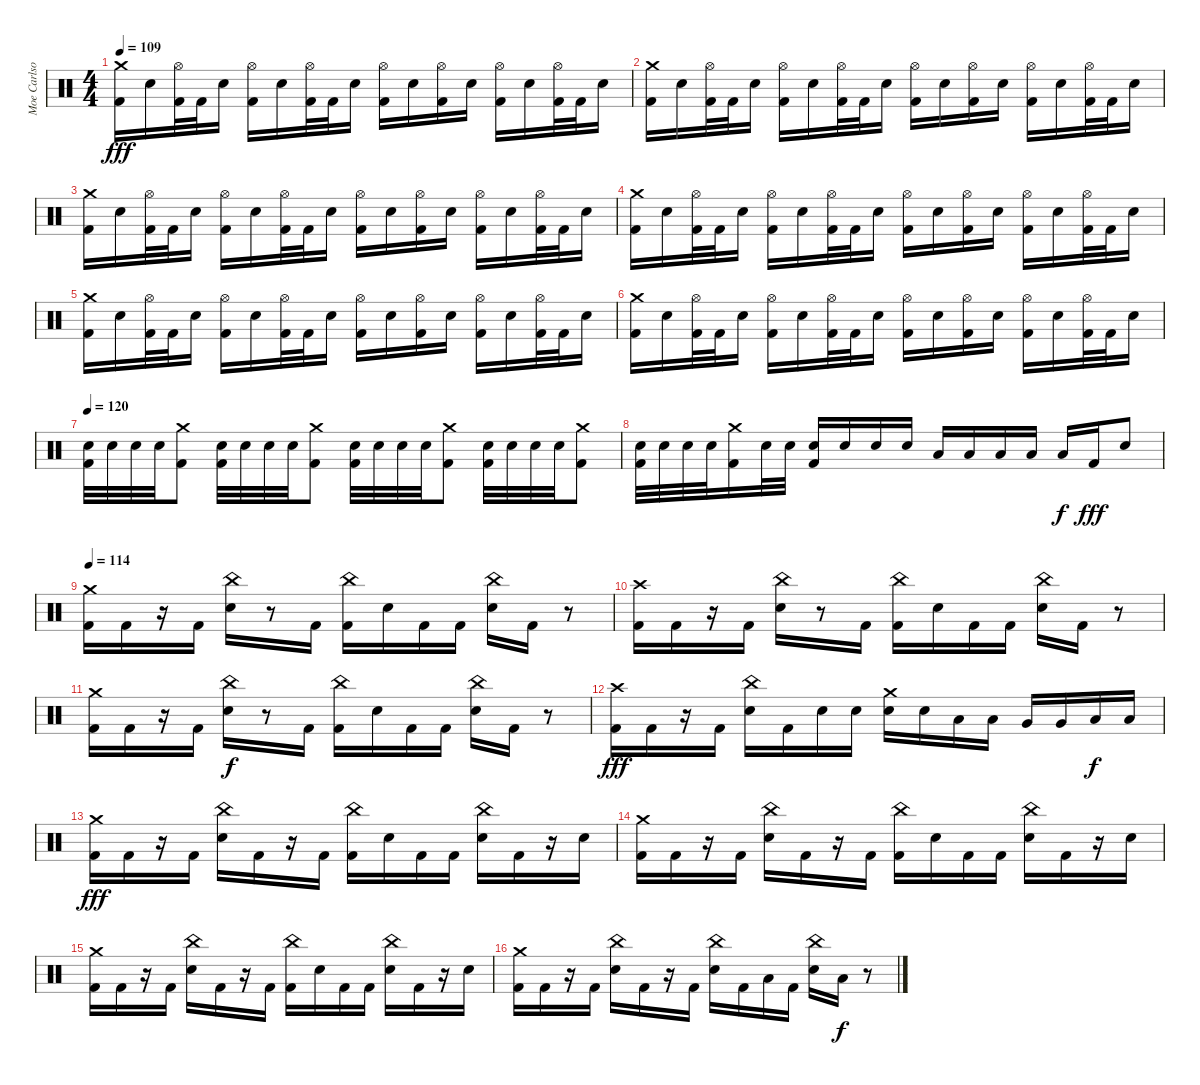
\track ("Moe Carlson" "Moe Carlso") {instrument percussion}
\staff {score}
\articulation defaults
\ts (4 4)
\tempo 109
\clef neutral
\ks c
("Crash medium (hit)" "Kick (hit) 2").16{dy fff} "Electric Snare (hit)".16 ("Hi-Hat (open)" "Kick (hit) 2").32 "Kick (hit) 2".32 "Electric Snare (hit)".16 ("Hi-Hat (open)" "Kick (hit) 2").16 "Electric Snare (hit)".16 ("Hi-Hat (open)" "Kick (hit) 2").32 "Kick (hit) 2".32 "Electric Snare (hit)".16 ("Hi-Hat (open)" "Kick (hit) 2").16 "Electric Snare (hit)".16 ("Hi-Hat (open)" "Kick (hit) 2").16 "Electric Snare (hit)".16 ("Hi-Hat (open)" "Kick (hit) 2").16 "Electric Snare (hit)".16 ("Hi-Hat (open)" "Kick (hit) 2").32 "Kick (hit) 2".32 "Electric Snare (hit)".16 |
("Crash medium (hit)" "Kick (hit) 2").16 "Electric Snare (hit)".16 ("Hi-Hat (open)" "Kick (hit) 2").32 "Kick (hit) 2".32 "Electric Snare (hit)".16 ("Hi-Hat (open)" "Kick (hit) 2").16 "Electric Snare (hit)".16 ("Hi-Hat (open)" "Kick (hit) 2").32 "Kick (hit) 2".32 "Electric Snare (hit)".16 ("Hi-Hat (open)" "Kick (hit) 2").16 "Electric Snare (hit)".16 ("Hi-Hat (open)" "Kick (hit) 2").16 "Electric Snare (hit)".16 ("Hi-Hat (open)" "Kick (hit) 2").16 "Electric Snare (hit)".16 ("Hi-Hat (open)" "Kick (hit) 2").32 "Kick (hit) 2".32 "Electric Snare (hit)".16 |
("Crash medium (hit)" "Kick (hit) 2").16 "Electric Snare (hit)".16 ("Hi-Hat (open)" "Kick (hit) 2").32 "Kick (hit) 2".32 "Electric Snare (hit)".16 ("Hi-Hat (open)" "Kick (hit) 2").16 "Electric Snare (hit)".16 ("Hi-Hat (open)" "Kick (hit) 2").32 "Kick (hit) 2".32 "Electric Snare (hit)".16 ("Hi-Hat (open)" "Kick (hit) 2").16 "Electric Snare (hit)".16 ("Hi-Hat (open)" "Kick (hit) 2").16 "Electric Snare (hit)".16 ("Hi-Hat (open)" "Kick (hit) 2").16 "Electric Snare (hit)".16 ("Hi-Hat (open)" "Kick (hit) 2").32 "Kick (hit) 2".32 "Electric Snare (hit)".16 |
("Crash medium (hit)" "Kick (hit) 2").16 "Electric Snare (hit)".16 ("Hi-Hat (open)" "Kick (hit) 2").32 "Kick (hit) 2".32 "Electric Snare (hit)".16 ("Hi-Hat (open)" "Kick (hit) 2").16 "Electric Snare (hit)".16 ("Hi-Hat (open)" "Kick (hit) 2").32 "Kick (hit) 2".32 "Electric Snare (hit)".16 ("Hi-Hat (open)" "Kick (hit) 2").16 "Electric Snare (hit)".16 ("Hi-Hat (open)" "Kick (hit) 2").16 "Electric Snare (hit)".16 ("Hi-Hat (open)" "Kick (hit) 2").16 "Electric Snare (hit)".16 ("Hi-Hat (open)" "Kick (hit) 2").32 "Kick (hit) 2".32 "Electric Snare (hit)".16 |
("Crash medium (hit)" "Kick (hit) 2").16 "Electric Snare (hit)".16 ("Hi-Hat (open)" "Kick (hit) 2").32 "Kick (hit) 2".32 "Electric Snare (hit)".16 ("Hi-Hat (open)" "Kick (hit) 2").16 "Electric Snare (hit)".16 ("Hi-Hat (open)" "Kick (hit) 2").32 "Kick (hit) 2".32 "Electric Snare (hit)".16 ("Hi-Hat (open)" "Kick (hit) 2").16 "Electric Snare (hit)".16 ("Hi-Hat (open)" "Kick (hit) 2").16 "Electric Snare (hit)".16 ("Hi-Hat (open)" "Kick (hit) 2").16 "Electric Snare (hit)".16 ("Hi-Hat (open)" "Kick (hit) 2").32 "Kick (hit) 2".32 "Electric Snare (hit)".16 |
("Crash medium (hit)" "Kick (hit) 2").16 "Electric Snare (hit)".16 ("Hi-Hat (open)" "Kick (hit) 2").32 "Kick (hit) 2".32 "Electric Snare (hit)".16 ("Hi-Hat (open)" "Kick (hit) 2").16 "Electric Snare (hit)".16 ("Hi-Hat (open)" "Kick (hit) 2").32 "Kick (hit) 2".32 "Electric Snare (hit)".16 ("Hi-Hat (open)" "Kick (hit) 2").16 "Electric Snare (hit)".16 ("Hi-Hat (open)" "Kick (hit) 2").16 "Electric Snare (hit)".16 ("Hi-Hat (open)" "Kick (hit) 2").16 "Electric Snare (hit)".16 ("Hi-Hat (open)" "Kick (hit) 2").32 "Kick (hit) 2".32 "Electric Snare (hit)".16 |
\tempo 120
("Electric Snare (hit)" "Kick (hit) 2").32 "Electric Snare (hit)".32 "Electric Snare (hit)".32 "Electric Snare (hit)".32 ("Crash medium (hit)" "Kick (hit) 2").8 ("Electric Snare (hit)" "Kick (hit) 2").32 "Electric Snare (hit)".32 "Electric Snare (hit)".32 "Electric Snare (hit)".32 ("Crash medium (hit)" "Kick (hit) 2").8 ("Electric Snare (hit)" "Kick (hit) 2").32 "Electric Snare (hit)".32 "Electric Snare (hit)".32 "Electric Snare (hit)".32 ("Crash medium (hit)" "Kick (hit) 2").8 ("Electric Snare (hit)" "Kick (hit) 2").32 "Electric Snare (hit)".32 "Electric Snare (hit)".32 "Electric Snare (hit)".32 ("Crash medium (hit)" "Kick (hit) 2").8 |
("Electric Snare (hit)" "Kick (hit) 2").32 "Electric Snare (hit)".32 "Electric Snare (hit)".32 "Electric Snare (hit)".32 ("Crash medium (hit)" "Kick (hit) 2").16 "Electric Snare (hit)".32 "Electric Snare (hit)".32 ("Electric Snare (hit)" "Kick (hit) 2").16 "Electric Snare (hit)".16 "Electric Snare (hit)".16 "Electric Snare (hit)".16 "Low Tom (hit)".16 "Low Tom (hit)".16 "Low Tom (hit)".16 "Low Tom (hit)".16 "Low Floor Tom (hit)".16{dy f} "Kick (hit) 2".16{dy fff} "Electric Snare (hit)".8 |
\tempo 114
("Crash medium (hit)" "Kick (hit) 2").16 "Kick (hit) 2".16 r.16 "Kick (hit) 2".16 ("China (hit)" "Electric Snare (hit)").16 r.8 "Kick (hit) 2".16 ("China (hit)" "Kick (hit) 2").16 "Electric Snare (hit)".16 "Kick (hit) 2".16 "Kick (hit) 2".16 ("China (hit)" "Electric Snare (hit)").16 "Kick (hit) 2".16 r.8 |
("Crash high (hit)" "Kick (hit) 2").16 "Kick (hit) 2".16 r.16 "Kick (hit) 2".16 ("China (hit)" "Electric Snare (hit)").16 r.8 "Kick (hit) 2".16 ("China (hit)" "Kick (hit) 2").16 "Electric Snare (hit)".16 "Kick (hit) 2".16 "Kick (hit) 2".16 ("China (hit)" "Electric Snare (hit)").16 "Kick (hit) 2".16 r.8 |
("Crash medium (hit)" "Kick (hit) 2").16 "Kick (hit) 2".16 r.16 "Kick (hit) 2".16 ("China (hit)" "Electric Snare (hit)").16{dy f} r.8 "Kick (hit) 2".16 ("China (hit)" "Kick (hit) 2").16 "Electric Snare (hit)".16 "Kick (hit) 2".16 "Kick (hit) 2".16 ("China (hit)" "Electric Snare (hit)").16 "Kick (hit) 2".16 r.8 |
("Crash high (hit)" "Kick (hit) 2").16{dy fff} "Kick (hit) 2".16 r.16 "Kick (hit) 2".16 ("China (hit)" "Electric Snare (hit)").16 "Kick (hit) 2".16 "Electric Snare (hit)".16 "Electric Snare (hit)".16 ("Crash medium (hit)" "Electric Snare (hit)").16 "Electric Snare (hit)".16 "Low Tom (hit)".16 "Low Tom (hit)".16 "Very Low Tom (hit)".16 "Very Low Tom (hit)".16 "Low Floor Tom (hit)".16{dy f} "Low Floor Tom (hit)".16 |
("Crash medium (hit)" "Kick (hit) 2").16{dy fff} "Kick (hit) 2".16 r.16 "Kick (hit) 2".16 ("China (hit)" "Electric Snare (hit)").16 "Kick (hit) 2".16 r.16 "Kick (hit) 2".16 ("China (hit)" "Kick (hit) 2").16 "Electric Snare (hit)".16 "Kick (hit) 2".16 "Kick (hit) 2".16 ("China (hit)" "Electric Snare (hit)").16 "Kick (hit) 2".16 r.16 "Electric Snare (hit)".16 |
("Crash medium (hit)" "Kick (hit) 2").16 "Kick (hit) 2".16 r.16 "Kick (hit) 2".16 ("China (hit)" "Electric Snare (hit)").16 "Kick (hit) 2".16 r.16 "Kick (hit) 2".16 ("China (hit)" "Kick (hit) 2").16 "Electric Snare (hit)".16 "Kick (hit) 2".16 "Kick (hit) 2".16 ("China (hit)" "Electric Snare (hit)").16 "Kick (hit) 2".16 r.16 "Electric Snare (hit)".16 |
("Crash medium (hit)" "Kick (hit) 2").16 "Kick (hit) 2".16 r.16 "Kick (hit) 2".16 ("China (hit)" "Electric Snare (hit)").16 "Kick (hit) 2".16 r.16 "Kick (hit) 2".16 ("China (hit)" "Kick (hit) 2").16 "Electric Snare (hit)".16 "Kick (hit) 2".16 "Kick (hit) 2".16 ("China (hit)" "Electric Snare (hit)").16 "Kick (hit) 2".16 r.16 "Electric Snare (hit)".16 |
("Crash medium (hit)" "Kick (hit) 2").16 "Kick (hit) 2".16 r.16 "Kick (hit) 2".16 ("China (hit)" "Electric Snare (hit)").16 "Kick (hit) 2".16 r.16 "Kick (hit) 2".16 ("China (hit)" "Electric Snare (hit)").16 "Kick (hit) 2".16 "Low Tom (hit)".16 "Kick (hit) 2".16 ("China (hit)" "Electric Snare (hit)").16 "Low Floor Tom (hit)".16{dy f} r.8
